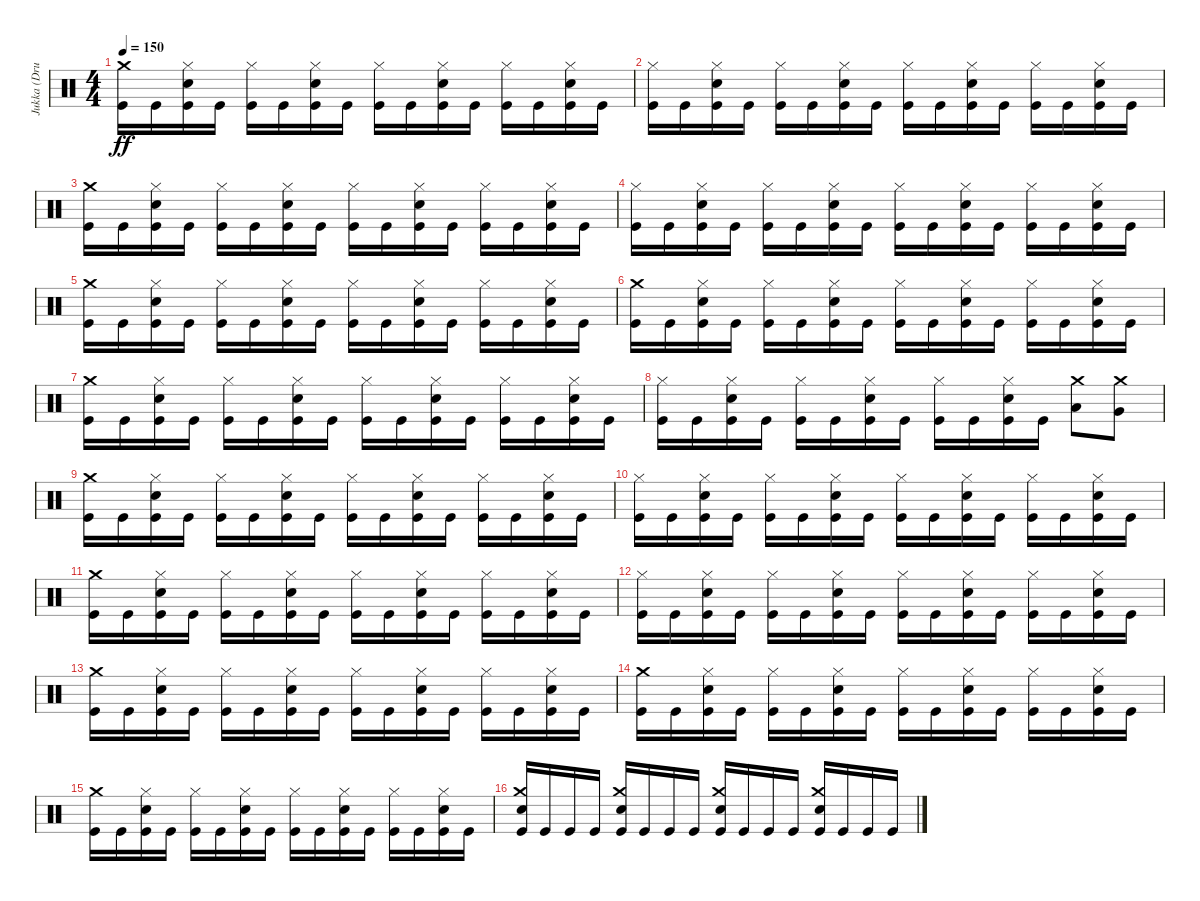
\track ("Jukka (Drums)" "Jukka (Dru") {instrument percussion}
\staff {score}
\articulation defaults
\ts (4 4)
\tempo 150
\clef neutral
\ks c
("Kick (hit)" "Crash medium (hit)").16{dy ff} "Kick (hit)".16 ("Kick (hit)" "Electric Snare (hit)" "Hi-Hat (closed)").16 "Kick (hit)".16 ("Kick (hit)" "Hi-Hat (closed)").16 "Kick (hit)".16 ("Kick (hit)" "Electric Snare (hit)" "Hi-Hat (closed)").16 "Kick (hit)".16 ("Kick (hit)" "Hi-Hat (closed)").16 "Kick (hit)".16 ("Kick (hit)" "Electric Snare (hit)" "Hi-Hat (closed)").16 "Kick (hit)".16 ("Kick (hit)" "Hi-Hat (closed)").16 "Kick (hit)".16 ("Kick (hit)" "Electric Snare (hit)" "Hi-Hat (closed)").16 "Kick (hit)".16 |
("Kick (hit)" "Hi-Hat (closed)").16 "Kick (hit)".16 ("Kick (hit)" "Electric Snare (hit)" "Hi-Hat (closed)").16 "Kick (hit)".16 ("Kick (hit)" "Hi-Hat (closed)").16 "Kick (hit)".16 ("Kick (hit)" "Electric Snare (hit)" "Hi-Hat (closed)").16 "Kick (hit)".16 ("Kick (hit)" "Hi-Hat (closed)").16 "Kick (hit)".16 ("Kick (hit)" "Electric Snare (hit)" "Hi-Hat (closed)").16 "Kick (hit)".16 ("Kick (hit)" "Hi-Hat (closed)").16 "Kick (hit)".16 ("Kick (hit)" "Electric Snare (hit)" "Hi-Hat (closed)").16 "Kick (hit)".16 |
("Kick (hit)" "Crash medium (hit)").16 "Kick (hit)".16 ("Kick (hit)" "Electric Snare (hit)" "Hi-Hat (closed)").16 "Kick (hit)".16 ("Kick (hit)" "Hi-Hat (closed)").16 "Kick (hit)".16 ("Kick (hit)" "Electric Snare (hit)" "Hi-Hat (closed)").16 "Kick (hit)".16 ("Kick (hit)" "Hi-Hat (closed)").16 "Kick (hit)".16 ("Kick (hit)" "Electric Snare (hit)" "Hi-Hat (closed)").16 "Kick (hit)".16 ("Kick (hit)" "Hi-Hat (closed)").16 "Kick (hit)".16 ("Kick (hit)" "Electric Snare (hit)" "Hi-Hat (closed)").16 "Kick (hit)".16 |
("Kick (hit)" "Hi-Hat (closed)").16 "Kick (hit)".16 ("Kick (hit)" "Electric Snare (hit)" "Hi-Hat (closed)").16 "Kick (hit)".16 ("Kick (hit)" "Hi-Hat (closed)").16 "Kick (hit)".16 ("Kick (hit)" "Electric Snare (hit)" "Hi-Hat (closed)").16 "Kick (hit)".16 ("Kick (hit)" "Hi-Hat (closed)").16 "Kick (hit)".16 ("Kick (hit)" "Electric Snare (hit)" "Hi-Hat (closed)").16 "Kick (hit)".16 ("Kick (hit)" "Hi-Hat (closed)").16 "Kick (hit)".16 ("Kick (hit)" "Electric Snare (hit)" "Hi-Hat (closed)").16 "Kick (hit)".16 |
("Kick (hit)" "Crash medium (hit)").16 "Kick (hit)".16 ("Kick (hit)" "Electric Snare (hit)" "Hi-Hat (closed)").16 "Kick (hit)".16 ("Kick (hit)" "Hi-Hat (closed)").16 "Kick (hit)".16 ("Kick (hit)" "Electric Snare (hit)" "Hi-Hat (closed)").16 "Kick (hit)".16 ("Kick (hit)" "Hi-Hat (closed)").16 "Kick (hit)".16 ("Kick (hit)" "Electric Snare (hit)" "Hi-Hat (closed)").16 "Kick (hit)".16 ("Kick (hit)" "Hi-Hat (closed)").16 "Kick (hit)".16 ("Kick (hit)" "Electric Snare (hit)" "Hi-Hat (closed)").16 "Kick (hit)".16 |
("Kick (hit)" "Crash medium (hit)").16 "Kick (hit)".16 ("Kick (hit)" "Electric Snare (hit)" "Hi-Hat (closed)").16 "Kick (hit)".16 ("Kick (hit)" "Hi-Hat (closed)").16 "Kick (hit)".16 ("Kick (hit)" "Electric Snare (hit)" "Hi-Hat (closed)").16 "Kick (hit)".16 ("Kick (hit)" "Hi-Hat (closed)").16 "Kick (hit)".16 ("Kick (hit)" "Electric Snare (hit)" "Hi-Hat (closed)").16 "Kick (hit)".16 ("Kick (hit)" "Hi-Hat (closed)").16 "Kick (hit)".16 ("Kick (hit)" "Electric Snare (hit)" "Hi-Hat (closed)").16 "Kick (hit)".16 |
("Kick (hit)" "Crash medium (hit)").16 "Kick (hit)".16 ("Kick (hit)" "Electric Snare (hit)" "Hi-Hat (closed)").16 "Kick (hit)".16 ("Kick (hit)" "Hi-Hat (closed)").16 "Kick (hit)".16 ("Kick (hit)" "Electric Snare (hit)" "Hi-Hat (closed)").16 "Kick (hit)".16 ("Kick (hit)" "Hi-Hat (closed)").16 "Kick (hit)".16 ("Kick (hit)" "Electric Snare (hit)" "Hi-Hat (closed)").16 "Kick (hit)".16 ("Kick (hit)" "Hi-Hat (closed)").16 "Kick (hit)".16 ("Kick (hit)" "Electric Snare (hit)" "Hi-Hat (closed)").16 "Kick (hit)".16 |
("Kick (hit)" "Hi-Hat (closed)").16 "Kick (hit)".16 ("Kick (hit)" "Electric Snare (hit)" "Hi-Hat (closed)").16 "Kick (hit)".16 ("Kick (hit)" "Hi-Hat (closed)").16 "Kick (hit)".16 ("Kick (hit)" "Electric Snare (hit)" "Hi-Hat (closed)").16 "Kick (hit)".16 ("Kick (hit)" "Hi-Hat (closed)").16 "Kick (hit)".16 ("Kick (hit)" "Electric Snare (hit)" "Hi-Hat (closed)").16 "Kick (hit)".16 ("Low Tom (hit)" "Crash medium (hit)").8 ("Very Low Tom (hit)" "Crash medium (hit)").8 |
("Kick (hit)" "Crash medium (hit)").16 "Kick (hit)".16 ("Kick (hit)" "Electric Snare (hit)" "Hi-Hat (closed)").16 "Kick (hit)".16 ("Kick (hit)" "Hi-Hat (closed)").16 "Kick (hit)".16 ("Kick (hit)" "Electric Snare (hit)" "Hi-Hat (closed)").16 "Kick (hit)".16 ("Kick (hit)" "Hi-Hat (closed)").16 "Kick (hit)".16 ("Kick (hit)" "Electric Snare (hit)" "Hi-Hat (closed)").16 "Kick (hit)".16 ("Kick (hit)" "Hi-Hat (closed)").16 "Kick (hit)".16 ("Kick (hit)" "Electric Snare (hit)" "Hi-Hat (closed)").16 "Kick (hit)".16 |
("Kick (hit)" "Hi-Hat (closed)").16 "Kick (hit)".16 ("Kick (hit)" "Electric Snare (hit)" "Hi-Hat (closed)").16 "Kick (hit)".16 ("Kick (hit)" "Hi-Hat (closed)").16 "Kick (hit)".16 ("Kick (hit)" "Electric Snare (hit)" "Hi-Hat (closed)").16 "Kick (hit)".16 ("Kick (hit)" "Hi-Hat (closed)").16 "Kick (hit)".16 ("Kick (hit)" "Electric Snare (hit)" "Hi-Hat (closed)").16 "Kick (hit)".16 ("Kick (hit)" "Hi-Hat (closed)").16 "Kick (hit)".16 ("Kick (hit)" "Electric Snare (hit)" "Hi-Hat (closed)").16 "Kick (hit)".16 |
("Kick (hit)" "Crash medium (hit)").16 "Kick (hit)".16 ("Kick (hit)" "Electric Snare (hit)" "Hi-Hat (closed)").16 "Kick (hit)".16 ("Kick (hit)" "Hi-Hat (closed)").16 "Kick (hit)".16 ("Kick (hit)" "Electric Snare (hit)" "Hi-Hat (closed)").16 "Kick (hit)".16 ("Kick (hit)" "Hi-Hat (closed)").16 "Kick (hit)".16 ("Kick (hit)" "Electric Snare (hit)" "Hi-Hat (closed)").16 "Kick (hit)".16 ("Kick (hit)" "Hi-Hat (closed)").16 "Kick (hit)".16 ("Kick (hit)" "Electric Snare (hit)" "Hi-Hat (closed)").16 "Kick (hit)".16 |
("Kick (hit)" "Hi-Hat (closed)").16 "Kick (hit)".16 ("Kick (hit)" "Electric Snare (hit)" "Hi-Hat (closed)").16 "Kick (hit)".16 ("Kick (hit)" "Hi-Hat (closed)").16 "Kick (hit)".16 ("Kick (hit)" "Electric Snare (hit)" "Hi-Hat (closed)").16 "Kick (hit)".16 ("Kick (hit)" "Hi-Hat (closed)").16 "Kick (hit)".16 ("Kick (hit)" "Electric Snare (hit)" "Hi-Hat (closed)").16 "Kick (hit)".16 ("Kick (hit)" "Hi-Hat (closed)").16 "Kick (hit)".16 ("Kick (hit)" "Electric Snare (hit)" "Hi-Hat (closed)").16 "Kick (hit)".16 |
("Kick (hit)" "Crash medium (hit)").16 "Kick (hit)".16 ("Kick (hit)" "Electric Snare (hit)" "Hi-Hat (closed)").16 "Kick (hit)".16 ("Kick (hit)" "Hi-Hat (closed)").16 "Kick (hit)".16 ("Kick (hit)" "Electric Snare (hit)" "Hi-Hat (closed)").16 "Kick (hit)".16 ("Kick (hit)" "Hi-Hat (closed)").16 "Kick (hit)".16 ("Kick (hit)" "Electric Snare (hit)" "Hi-Hat (closed)").16 "Kick (hit)".16 ("Kick (hit)" "Hi-Hat (closed)").16 "Kick (hit)".16 ("Kick (hit)" "Electric Snare (hit)" "Hi-Hat (closed)").16 "Kick (hit)".16 |
("Kick (hit)" "Crash medium (hit)").16 "Kick (hit)".16 ("Kick (hit)" "Electric Snare (hit)" "Hi-Hat (closed)").16 "Kick (hit)".16 ("Kick (hit)" "Hi-Hat (closed)").16 "Kick (hit)".16 ("Kick (hit)" "Electric Snare (hit)" "Hi-Hat (closed)").16 "Kick (hit)".16 ("Kick (hit)" "Hi-Hat (closed)").16 "Kick (hit)".16 ("Kick (hit)" "Electric Snare (hit)" "Hi-Hat (closed)").16 "Kick (hit)".16 ("Kick (hit)" "Hi-Hat (closed)").16 "Kick (hit)".16 ("Kick (hit)" "Electric Snare (hit)" "Hi-Hat (closed)").16 "Kick (hit)".16 |
("Kick (hit)" "Crash medium (hit)").16 "Kick (hit)".16 ("Kick (hit)" "Electric Snare (hit)" "Hi-Hat (closed)").16 "Kick (hit)".16 ("Kick (hit)" "Hi-Hat (closed)").16 "Kick (hit)".16 ("Kick (hit)" "Electric Snare (hit)" "Hi-Hat (closed)").16 "Kick (hit)".16 ("Kick (hit)" "Hi-Hat (closed)").16 "Kick (hit)".16 ("Kick (hit)" "Electric Snare (hit)" "Hi-Hat (closed)").16 "Kick (hit)".16 ("Kick (hit)" "Hi-Hat (closed)").16 "Kick (hit)".16 ("Kick (hit)" "Electric Snare (hit)" "Hi-Hat (closed)").16 "Kick (hit)".16 |
("Kick (hit)" "Electric Snare (hit)" "Crash medium (hit)").16 "Kick (hit)".16 "Kick (hit)".16 "Kick (hit)".16 ("Kick (hit)" "Electric Snare (hit)" "Crash medium (hit)").16 "Kick (hit)".16 "Kick (hit)".16 "Kick (hit)".16 ("Kick (hit)" "Electric Snare (hit)" "Crash medium (hit)").16 "Kick (hit)".16 "Kick (hit)".16 "Kick (hit)".16 ("Kick (hit)" "Electric Snare (hit)" "Crash medium (hit)").16 "Kick (hit)".16 "Kick (hit)".16 "Kick (hit)".16
